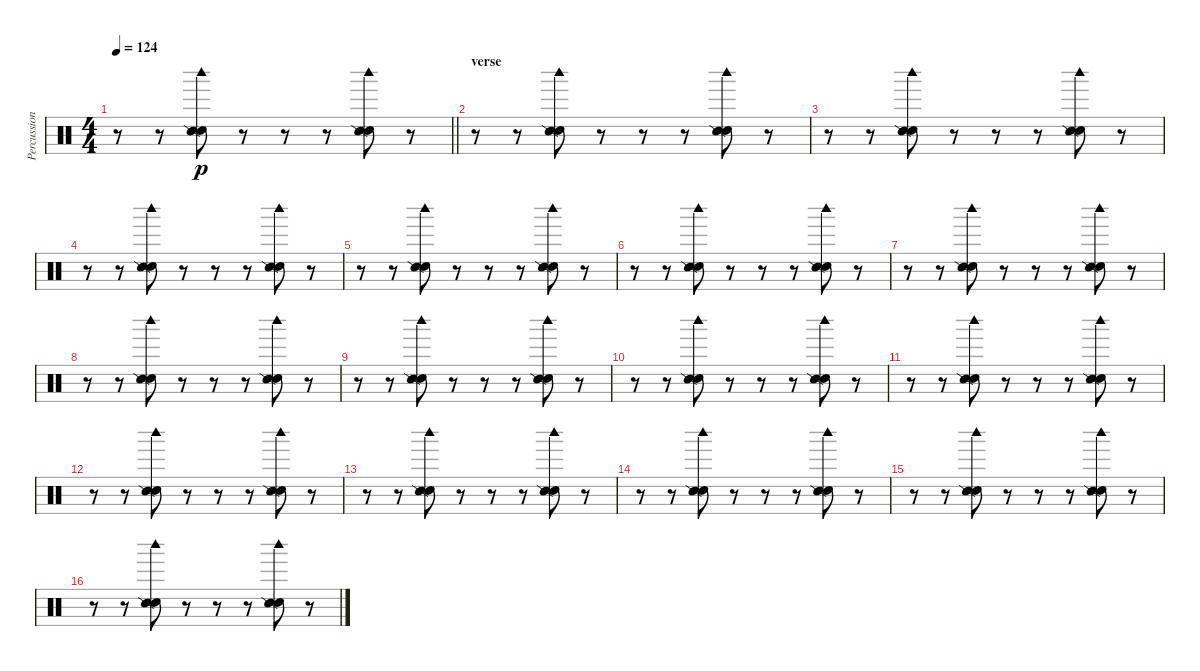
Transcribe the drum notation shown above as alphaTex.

\track ("Percussions" "Percussion") {instrument percussion}
\staff {score}
\articulation defaults
\ts (4 4)
\tempo 124
\clef neutral
\barLineRight lightlight
\ks c
r.8{dy p} r.8 ("Snare (hit) 2" "Snare (side stick) 2" "Woodblock high (hit)").8 r.8 r.8 r.8 ("Snare (hit) 2" "Snare (side stick) 2" "Woodblock high (hit)").8 r.8 |
\section ("" "verse")
r.8 r.8 ("Snare (hit) 2" "Snare (side stick) 2" "Woodblock high (hit)").8 r.8 r.8 r.8 ("Snare (hit) 2" "Snare (side stick) 2" "Woodblock high (hit)").8 r.8 |
r.8 r.8 ("Snare (hit) 2" "Snare (side stick) 2" "Woodblock high (hit)").8 r.8 r.8 r.8 ("Snare (hit) 2" "Snare (side stick) 2" "Woodblock high (hit)").8 r.8 |
r.8 r.8 ("Snare (hit) 2" "Snare (side stick) 2" "Woodblock high (hit)").8 r.8 r.8 r.8 ("Snare (hit) 2" "Snare (side stick) 2" "Woodblock high (hit)").8 r.8 |
r.8 r.8 ("Snare (hit) 2" "Snare (side stick) 2" "Woodblock high (hit)").8 r.8 r.8 r.8 ("Snare (hit) 2" "Snare (side stick) 2" "Woodblock high (hit)").8 r.8 |
r.8 r.8 ("Snare (hit) 2" "Snare (side stick) 2" "Woodblock high (hit)").8 r.8 r.8 r.8 ("Snare (hit) 2" "Snare (side stick) 2" "Woodblock high (hit)").8 r.8 |
r.8 r.8 ("Snare (hit) 2" "Snare (side stick) 2" "Woodblock high (hit)").8 r.8 r.8 r.8 ("Snare (hit) 2" "Snare (side stick) 2" "Woodblock high (hit)").8 r.8 |
r.8 r.8 ("Snare (hit) 2" "Snare (side stick) 2" "Woodblock high (hit)").8 r.8 r.8 r.8 ("Snare (hit) 2" "Snare (side stick) 2" "Woodblock high (hit)").8 r.8 |
r.8 r.8 ("Snare (hit) 2" "Snare (side stick) 2" "Woodblock high (hit)").8 r.8 r.8 r.8 ("Snare (hit) 2" "Snare (side stick) 2" "Woodblock high (hit)").8 r.8 |
r.8 r.8 ("Snare (hit) 2" "Snare (side stick) 2" "Woodblock high (hit)").8 r.8 r.8 r.8 ("Snare (hit) 2" "Snare (side stick) 2" "Woodblock high (hit)").8 r.8 |
r.8 r.8 ("Snare (hit) 2" "Snare (side stick) 2" "Woodblock high (hit)").8 r.8 r.8 r.8 ("Snare (hit) 2" "Snare (side stick) 2" "Woodblock high (hit)").8 r.8 |
r.8 r.8 ("Snare (hit) 2" "Snare (side stick) 2" "Woodblock high (hit)").8 r.8 r.8 r.8 ("Snare (hit) 2" "Snare (side stick) 2" "Woodblock high (hit)").8 r.8 |
r.8 r.8 ("Snare (hit) 2" "Snare (side stick) 2" "Woodblock high (hit)").8 r.8 r.8 r.8 ("Snare (hit) 2" "Snare (side stick) 2" "Woodblock high (hit)").8 r.8 |
r.8 r.8 ("Snare (hit) 2" "Snare (side stick) 2" "Woodblock high (hit)").8 r.8 r.8 r.8 ("Snare (hit) 2" "Snare (side stick) 2" "Woodblock high (hit)").8 r.8 |
r.8 r.8 ("Snare (hit) 2" "Snare (side stick) 2" "Woodblock high (hit)").8 r.8 r.8 r.8 ("Snare (hit) 2" "Snare (side stick) 2" "Woodblock high (hit)").8 r.8 |
r.8 r.8 ("Snare (hit) 2" "Snare (side stick) 2" "Woodblock high (hit)").8 r.8 r.8 r.8 ("Snare (hit) 2" "Snare (side stick) 2" "Woodblock high (hit)").8 r.8
